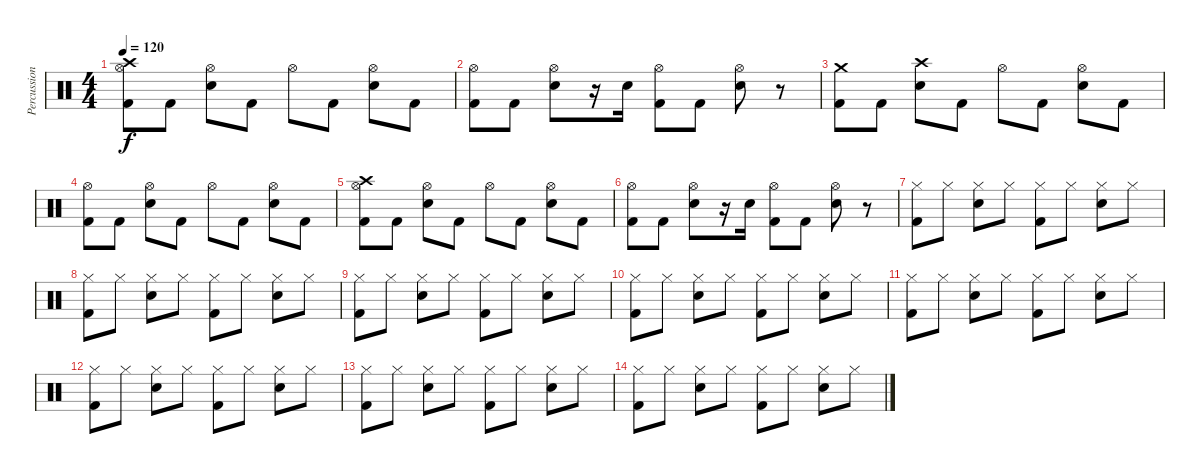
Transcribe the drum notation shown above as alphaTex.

\track ("Percussion" "Percussion") {instrument percussion}
\staff {score}
\articulation defaults
\ts (4 4)
\tempo 120
\clef neutral
\ks c
("Hi-Hat (open)" "Crash high (hit)" "Kick (hit) 2").8{dy f} "Kick (hit) 2".8 ("Hi-Hat (open)" "Snare (hit) 2").8 "Kick (hit) 2".8 "Hi-Hat (open)".8 "Kick (hit) 2".8 ("Hi-Hat (open)" "Snare (hit) 2").8 "Kick (hit) 2".8 |
("Hi-Hat (open)" "Kick (hit) 2").8 "Kick (hit) 2".8 ("Hi-Hat (open)" "Snare (hit) 2").8 r.16 "Snare (hit) 2".16 ("Hi-Hat (open)" "Kick (hit) 2").8 "Kick (hit) 2".8 ("Hi-Hat (open)" "Snare (hit) 2").8 r.8 |
("Crash medium (hit)" "Kick (hit) 2").8 "Kick (hit) 2".8 ("Crash high (hit)" "Snare (hit) 2").8 "Kick (hit) 2".8 "Hi-Hat (open)".8 "Kick (hit) 2".8 ("Hi-Hat (open)" "Snare (hit) 2").8 "Kick (hit) 2".8 |
("Hi-Hat (open)" "Kick (hit) 2").8 "Kick (hit) 2".8 ("Hi-Hat (open)" "Snare (hit) 2").8 "Kick (hit) 2".8 "Hi-Hat (open)".8 "Kick (hit) 2".8 ("Hi-Hat (open)" "Snare (hit) 2").8 "Kick (hit) 2".8 |
("Hi-Hat (open)" "Crash high (hit)" "Kick (hit) 2").8 "Kick (hit) 2".8 ("Hi-Hat (open)" "Snare (hit) 2").8 "Kick (hit) 2".8 "Hi-Hat (open)".8 "Kick (hit) 2".8 ("Hi-Hat (open)" "Snare (hit) 2").8 "Kick (hit) 2".8 |
("Hi-Hat (open)" "Kick (hit) 2").8 "Kick (hit) 2".8 ("Hi-Hat (open)" "Snare (hit) 2").8 r.16 "Snare (hit) 2".16 ("Hi-Hat (open)" "Kick (hit) 2").8 "Kick (hit) 2".8 ("Hi-Hat (open)" "Snare (hit) 2").8 r.8 |
("Hi-Hat (closed)" "Kick (hit) 2").8 "Hi-Hat (closed)".8 ("Hi-Hat (closed)" "Electric Snare (hit)").8 "Hi-Hat (closed)".8 ("Hi-Hat (closed)" "Kick (hit) 2").8 "Hi-Hat (closed)".8 ("Hi-Hat (closed)" "Snare (hit) 2").8 "Hi-Hat (closed)".8 |
("Hi-Hat (closed)" "Kick (hit) 2").8 "Hi-Hat (closed)".8 ("Hi-Hat (closed)" "Electric Snare (hit)").8 "Hi-Hat (closed)".8 ("Hi-Hat (closed)" "Kick (hit) 2").8 "Hi-Hat (closed)".8 ("Hi-Hat (closed)" "Snare (hit) 2").8 "Hi-Hat (closed)".8 |
("Hi-Hat (closed)" "Kick (hit) 2").8 "Hi-Hat (closed)".8 ("Hi-Hat (closed)" "Electric Snare (hit)").8 "Hi-Hat (closed)".8 ("Hi-Hat (closed)" "Kick (hit) 2").8 "Hi-Hat (closed)".8 ("Hi-Hat (closed)" "Snare (hit) 2").8 "Hi-Hat (closed)".8 |
("Hi-Hat (closed)" "Kick (hit) 2").8 "Hi-Hat (closed)".8 ("Hi-Hat (closed)" "Electric Snare (hit)").8 "Hi-Hat (closed)".8 ("Hi-Hat (closed)" "Kick (hit) 2").8 "Hi-Hat (closed)".8 ("Hi-Hat (closed)" "Snare (hit) 2").8 "Hi-Hat (closed)".8 |
("Hi-Hat (closed)" "Kick (hit) 2").8 "Hi-Hat (closed)".8 ("Hi-Hat (closed)" "Electric Snare (hit)").8 "Hi-Hat (closed)".8 ("Hi-Hat (closed)" "Kick (hit) 2").8 "Hi-Hat (closed)".8 ("Hi-Hat (closed)" "Snare (hit) 2").8 "Hi-Hat (closed)".8 |
("Hi-Hat (closed)" "Kick (hit) 2").8 "Hi-Hat (closed)".8 ("Hi-Hat (closed)" "Electric Snare (hit)").8 "Hi-Hat (closed)".8 ("Hi-Hat (closed)" "Kick (hit) 2").8 "Hi-Hat (closed)".8 ("Hi-Hat (closed)" "Snare (hit) 2").8 "Hi-Hat (closed)".8 |
("Hi-Hat (closed)" "Kick (hit) 2").8 "Hi-Hat (closed)".8 ("Hi-Hat (closed)" "Electric Snare (hit)").8 "Hi-Hat (closed)".8 ("Hi-Hat (closed)" "Kick (hit) 2").8 "Hi-Hat (closed)".8 ("Hi-Hat (closed)" "Snare (hit) 2").8 "Hi-Hat (closed)".8 |
("Hi-Hat (closed)" "Kick (hit) 2").8 "Hi-Hat (closed)".8 ("Hi-Hat (closed)" "Electric Snare (hit)").8 "Hi-Hat (closed)".8 ("Hi-Hat (closed)" "Kick (hit) 2").8 "Hi-Hat (closed)".8 ("Hi-Hat (closed)" "Snare (hit) 2").8 "Hi-Hat (closed)".8
